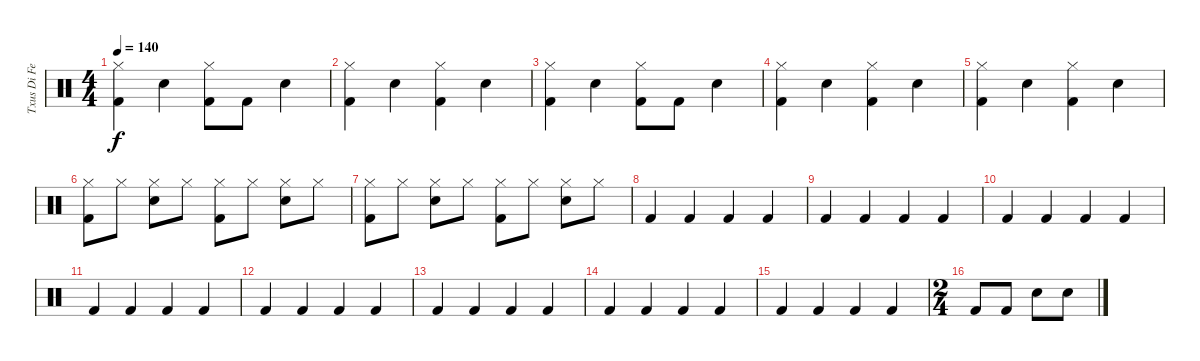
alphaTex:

\track ("Txus Di Fellatio" "Txus Di Fe") {instrument percussion}
\staff {score}
\articulation defaults
\ts (4 4)
\tempo 140
\clef neutral
\ks c
("Hi-Hat (closed)" "Kick (hit) 2").4{dy f} "Electric Snare (hit)".4 ("Hi-Hat (closed)" "Kick (hit) 2").8 "Kick (hit) 2".8 "Electric Snare (hit)".4 |
("Hi-Hat (closed)" "Kick (hit) 2").4 "Electric Snare (hit)".4 ("Hi-Hat (closed)" "Kick (hit) 2").4 "Electric Snare (hit)".4 |
("Hi-Hat (closed)" "Kick (hit) 2").4 "Electric Snare (hit)".4 ("Hi-Hat (closed)" "Kick (hit) 2").8 "Kick (hit) 2".8 "Electric Snare (hit)".4 |
("Hi-Hat (closed)" "Kick (hit) 2").4 "Electric Snare (hit)".4 ("Hi-Hat (closed)" "Kick (hit) 2").4 "Electric Snare (hit)".4 |
("Hi-Hat (closed)" "Kick (hit) 2").4 "Electric Snare (hit)".4 ("Hi-Hat (closed)" "Kick (hit) 2").4 "Electric Snare (hit)".4 |
("Hi-Hat (closed)" "Kick (hit) 2").8 "Hi-Hat (closed)".8 ("Hi-Hat (closed)" "Electric Snare (hit)").8 "Hi-Hat (closed)".8 ("Hi-Hat (closed)" "Kick (hit) 2").8 "Hi-Hat (closed)".8 ("Hi-Hat (closed)" "Electric Snare (hit)").8 "Hi-Hat (closed)".8 |
("Hi-Hat (closed)" "Kick (hit) 2").8 "Hi-Hat (closed)".8 ("Hi-Hat (closed)" "Electric Snare (hit)").8 "Hi-Hat (closed)".8 ("Hi-Hat (closed)" "Kick (hit) 2").8 "Hi-Hat (closed)".8 ("Hi-Hat (closed)" "Electric Snare (hit)").8 "Hi-Hat (closed)".8 |
"Kick (hit) 2".4 "Kick (hit) 2".4 "Kick (hit) 2".4 "Kick (hit) 2".4 |
"Kick (hit) 2".4 "Kick (hit) 2".4 "Kick (hit) 2".4 "Kick (hit) 2".4 |
"Kick (hit) 2".4 "Kick (hit) 2".4 "Kick (hit) 2".4 "Kick (hit) 2".4 |
"Kick (hit) 2".4 "Kick (hit) 2".4 "Kick (hit) 2".4 "Kick (hit) 2".4 |
"Kick (hit) 2".4 "Kick (hit) 2".4 "Kick (hit) 2".4 "Kick (hit) 2".4 |
"Kick (hit) 2".4 "Kick (hit) 2".4 "Kick (hit) 2".4 "Kick (hit) 2".4 |
"Kick (hit) 2".4 "Kick (hit) 2".4 "Kick (hit) 2".4 "Kick (hit) 2".4 |
"Kick (hit) 2".4 "Kick (hit) 2".4 "Kick (hit) 2".4 "Kick (hit) 2".4 |
\ts (2 4)
"Kick (hit) 2".8 "Kick (hit) 2".8 "Electric Snare (hit)".8 "Electric Snare (hit)".8
